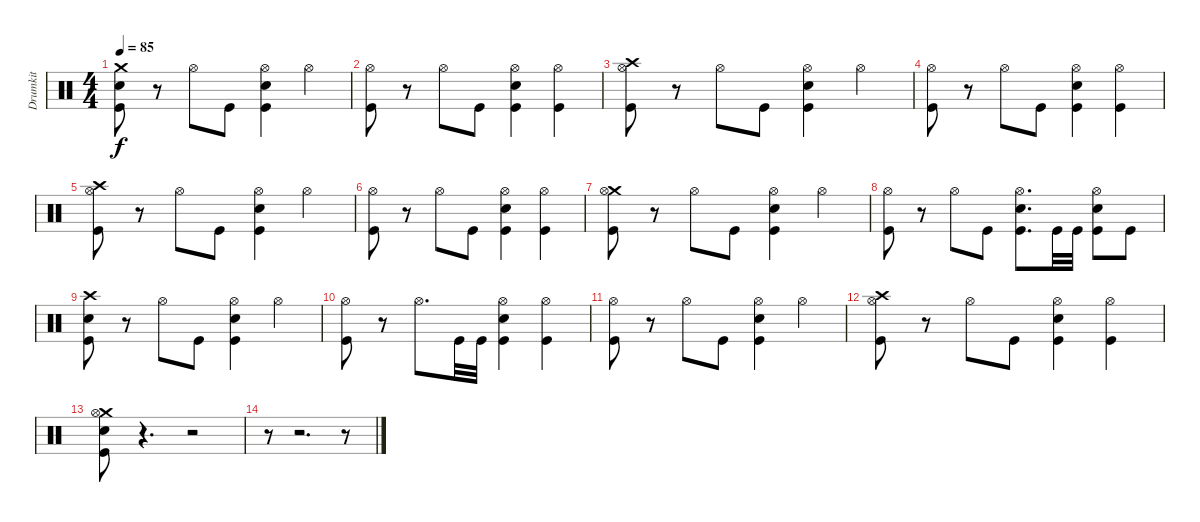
\track ("Drumkit" "Drumkit") {instrument percussion}
\staff {score}
\articulation defaults
\ts (4 4)
\tempo 85
\clef neutral
\ks c
("Crash medium (hit)" "Snare (hit) 2" "Kick (hit)").8{dy f} r.8 "Hi-Hat (open)".8 "Kick (hit)".8 ("Hi-Hat (open)" "Snare (hit) 2" "Kick (hit)").4 "Hi-Hat (open)".4 |
("Hi-Hat (open)" "Kick (hit)").8 r.8 "Hi-Hat (open)".8 "Kick (hit)".8 ("Hi-Hat (open)" "Snare (hit) 2" "Kick (hit)").4 ("Hi-Hat (open)" "Kick (hit)").4 |
("Crash high (hit)" "Hi-Hat (open)" "Kick (hit)").8 r.8 "Hi-Hat (open)".8 "Kick (hit)".8 ("Hi-Hat (open)" "Snare (hit) 2" "Kick (hit)").4 "Hi-Hat (open)".4 |
("Hi-Hat (open)" "Kick (hit)").8 r.8 "Hi-Hat (open)".8 "Kick (hit)".8 ("Hi-Hat (open)" "Snare (hit) 2" "Kick (hit)").4 ("Hi-Hat (open)" "Kick (hit)").4 |
("Crash high (hit)" "Hi-Hat (open)" "Kick (hit)").8 r.8 "Hi-Hat (open)".8 "Kick (hit)".8 ("Hi-Hat (open)" "Snare (hit) 2" "Kick (hit)").4 "Hi-Hat (open)".4 |
("Hi-Hat (open)" "Kick (hit)").8 r.8 "Hi-Hat (open)".8 "Kick (hit)".8 ("Hi-Hat (open)" "Snare (hit) 2" "Kick (hit)").4 ("Hi-Hat (open)" "Kick (hit)").4 |
("Crash medium (hit)" "Hi-Hat (open)" "Kick (hit)").8 r.8 "Hi-Hat (open)".8 "Kick (hit)".8 ("Hi-Hat (open)" "Snare (hit) 2" "Kick (hit)").4 "Hi-Hat (open)".4 |
("Hi-Hat (open)" "Kick (hit)").8 r.8 "Hi-Hat (open)".8 "Kick (hit)".8 ("Hi-Hat (open)" "Snare (hit) 2" "Kick (hit)").8{d} "Kick (hit)".32 "Kick (hit)".32 ("Hi-Hat (open)" "Snare (hit) 2" "Kick (hit)").8 "Kick (hit)".8 |
("Crash high (hit)" "Snare (hit) 2" "Kick (hit)").8 r.8 "Hi-Hat (open)".8 "Kick (hit)".8 ("Hi-Hat (open)" "Snare (hit) 2" "Kick (hit)").4 "Hi-Hat (open)".4 |
("Hi-Hat (open)" "Kick (hit)").8 r.8 "Hi-Hat (open)".8{d} "Kick (hit)".32 "Kick (hit)".32 ("Hi-Hat (open)" "Snare (hit) 2" "Kick (hit)").4 ("Hi-Hat (open)" "Kick (hit)").4 |
("Hi-Hat (open)" "Kick (hit)").8 r.8 "Hi-Hat (open)".8 "Kick (hit)".8 ("Hi-Hat (open)" "Snare (hit) 2" "Kick (hit)").4 "Hi-Hat (open)".4 |
("Crash high (hit)" "Hi-Hat (open)" "Kick (hit)").8 r.8 "Hi-Hat (open)".8 "Kick (hit)".8 ("Hi-Hat (open)" "Snare (hit) 2" "Kick (hit)").4 ("Hi-Hat (open)" "Kick (hit)").4 |
("Crash medium (hit)" "Hi-Hat (open)" "Snare (hit) 2" "Kick (hit)").8 r.4{d} r.2 |
r.8 r.2{d} r.8
